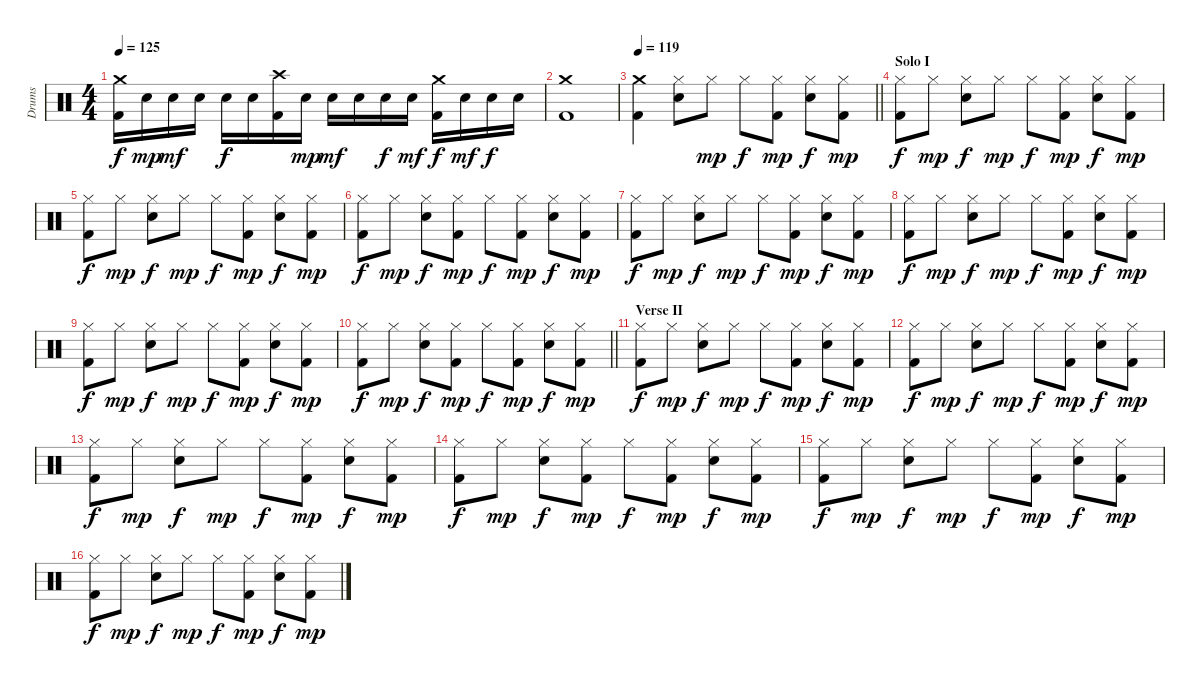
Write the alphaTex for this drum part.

\track ("Drums" "Drums") {instrument percussion}
\staff {score}
\articulation defaults
\ts (4 4)
\tempo 125
\clef neutral
\ks c
("Crash medium (hit)" "Kick (hit) 2").16{dy f} "Electric Snare (hit)".16{dy mp} "Electric Snare (hit)".16{dy mf} "Electric Snare (hit)".16 "Electric Snare (hit)".16{dy f} "Electric Snare (hit)".16 ("Crash high (hit)" "Kick (hit) 2").16 "Electric Snare (hit)".16{dy mp} "Electric Snare (hit)".16{dy mf} "Electric Snare (hit)".16 "Electric Snare (hit)".16{dy f} "Electric Snare (hit)".16{dy mf} ("Crash medium (hit)" "Kick (hit) 2").16{dy f} "Electric Snare (hit)".16{dy mf} "Electric Snare (hit)".16{dy f} "Electric Snare (hit)".16 |
("Crash medium (hit)" "Kick (hit) 2").1 |
\tempo 119
\barLineRight lightlight
("Crash medium (hit)" "Kick (hit) 2").4 ("Hi-Hat (closed)" "Electric Snare (hit)").8 "Hi-Hat (closed)".8{dy mp} "Hi-Hat (closed)".8{dy f} ("Hi-Hat (closed)" "Kick (hit) 2").8{dy mp} ("Hi-Hat (closed)" "Electric Snare (hit)").8{dy f} ("Hi-Hat (closed)" "Kick (hit) 2").8{dy mp} |
\section ("" "Solo I")
("Hi-Hat (closed)" "Kick (hit) 2").8{dy f} "Hi-Hat (closed)".8{dy mp} ("Hi-Hat (closed)" "Electric Snare (hit)").8{dy f} "Hi-Hat (closed)".8{dy mp} "Hi-Hat (closed)".8{dy f} ("Hi-Hat (closed)" "Kick (hit) 2").8{dy mp} ("Hi-Hat (closed)" "Electric Snare (hit)").8{dy f} ("Hi-Hat (closed)" "Kick (hit) 2").8{dy mp} |
("Hi-Hat (closed)" "Kick (hit) 2").8{dy f} "Hi-Hat (closed)".8{dy mp} ("Hi-Hat (closed)" "Electric Snare (hit)").8{dy f} "Hi-Hat (closed)".8{dy mp} "Hi-Hat (closed)".8{dy f} ("Hi-Hat (closed)" "Kick (hit) 2").8{dy mp} ("Hi-Hat (closed)" "Electric Snare (hit)").8{dy f} ("Hi-Hat (closed)" "Kick (hit) 2").8{dy mp} |
("Hi-Hat (closed)" "Kick (hit) 2").8{dy f} "Hi-Hat (closed)".8{dy mp} ("Hi-Hat (closed)" "Electric Snare (hit)").8{dy f} ("Hi-Hat (closed)" "Kick (hit) 2").8{dy mp} "Hi-Hat (closed)".8{dy f} ("Hi-Hat (closed)" "Kick (hit) 2").8{dy mp} ("Hi-Hat (closed)" "Electric Snare (hit)").8{dy f} ("Hi-Hat (closed)" "Kick (hit) 2").8{dy mp} |
("Hi-Hat (closed)" "Kick (hit) 2").8{dy f} "Hi-Hat (closed)".8{dy mp} ("Hi-Hat (closed)" "Electric Snare (hit)").8{dy f} "Hi-Hat (closed)".8{dy mp} "Hi-Hat (closed)".8{dy f} ("Hi-Hat (closed)" "Kick (hit) 2").8{dy mp} ("Hi-Hat (closed)" "Electric Snare (hit)").8{dy f} ("Hi-Hat (closed)" "Kick (hit) 2").8{dy mp} |
("Hi-Hat (closed)" "Kick (hit) 2").8{dy f} "Hi-Hat (closed)".8{dy mp} ("Hi-Hat (closed)" "Electric Snare (hit)").8{dy f} "Hi-Hat (closed)".8{dy mp} "Hi-Hat (closed)".8{dy f} ("Hi-Hat (closed)" "Kick (hit) 2").8{dy mp} ("Hi-Hat (closed)" "Electric Snare (hit)").8{dy f} ("Hi-Hat (closed)" "Kick (hit) 2").8{dy mp} |
("Hi-Hat (closed)" "Kick (hit) 2").8{dy f} "Hi-Hat (closed)".8{dy mp} ("Hi-Hat (closed)" "Electric Snare (hit)").8{dy f} "Hi-Hat (closed)".8{dy mp} "Hi-Hat (closed)".8{dy f} ("Hi-Hat (closed)" "Kick (hit) 2").8{dy mp} ("Hi-Hat (closed)" "Electric Snare (hit)").8{dy f} ("Hi-Hat (closed)" "Kick (hit) 2").8{dy mp} |
\barLineRight lightlight
("Hi-Hat (closed)" "Kick (hit) 2").8{dy f} "Hi-Hat (closed)".8{dy mp} ("Hi-Hat (closed)" "Electric Snare (hit)").8{dy f} ("Hi-Hat (closed)" "Kick (hit) 2").8{dy mp} "Hi-Hat (closed)".8{dy f} ("Hi-Hat (closed)" "Kick (hit) 2").8{dy mp} ("Hi-Hat (closed)" "Electric Snare (hit)").8{dy f} ("Hi-Hat (closed)" "Kick (hit) 2").8{dy mp} |
\section ("" "Verse II")
("Hi-Hat (closed)" "Kick (hit) 2").8{dy f} "Hi-Hat (closed)".8{dy mp} ("Hi-Hat (closed)" "Electric Snare (hit)").8{dy f} "Hi-Hat (closed)".8{dy mp} "Hi-Hat (closed)".8{dy f} ("Hi-Hat (closed)" "Kick (hit) 2").8{dy mp} ("Hi-Hat (closed)" "Electric Snare (hit)").8{dy f} ("Hi-Hat (closed)" "Kick (hit) 2").8{dy mp} |
("Hi-Hat (closed)" "Kick (hit) 2").8{dy f} "Hi-Hat (closed)".8{dy mp} ("Hi-Hat (closed)" "Electric Snare (hit)").8{dy f} "Hi-Hat (closed)".8{dy mp} "Hi-Hat (closed)".8{dy f} ("Hi-Hat (closed)" "Kick (hit) 2").8{dy mp} ("Hi-Hat (closed)" "Electric Snare (hit)").8{dy f} ("Hi-Hat (closed)" "Kick (hit) 2").8{dy mp} |
("Hi-Hat (closed)" "Kick (hit) 2").8{dy f} "Hi-Hat (closed)".8{dy mp} ("Hi-Hat (closed)" "Electric Snare (hit)").8{dy f} "Hi-Hat (closed)".8{dy mp} "Hi-Hat (closed)".8{dy f} ("Hi-Hat (closed)" "Kick (hit) 2").8{dy mp} ("Hi-Hat (closed)" "Electric Snare (hit)").8{dy f} ("Hi-Hat (closed)" "Kick (hit) 2").8{dy mp} |
("Hi-Hat (closed)" "Kick (hit) 2").8{dy f} "Hi-Hat (closed)".8{dy mp} ("Hi-Hat (closed)" "Electric Snare (hit)").8{dy f} ("Hi-Hat (closed)" "Kick (hit) 2").8{dy mp} "Hi-Hat (closed)".8{dy f} ("Hi-Hat (closed)" "Kick (hit) 2").8{dy mp} ("Hi-Hat (closed)" "Electric Snare (hit)").8{dy f} ("Hi-Hat (closed)" "Kick (hit) 2").8{dy mp} |
("Hi-Hat (closed)" "Kick (hit) 2").8{dy f} "Hi-Hat (closed)".8{dy mp} ("Hi-Hat (closed)" "Electric Snare (hit)").8{dy f} "Hi-Hat (closed)".8{dy mp} "Hi-Hat (closed)".8{dy f} ("Hi-Hat (closed)" "Kick (hit) 2").8{dy mp} ("Hi-Hat (closed)" "Electric Snare (hit)").8{dy f} ("Hi-Hat (closed)" "Kick (hit) 2").8{dy mp} |
("Hi-Hat (closed)" "Kick (hit) 2").8{dy f} "Hi-Hat (closed)".8{dy mp} ("Hi-Hat (closed)" "Electric Snare (hit)").8{dy f} "Hi-Hat (closed)".8{dy mp} "Hi-Hat (closed)".8{dy f} ("Hi-Hat (closed)" "Kick (hit) 2").8{dy mp} ("Hi-Hat (closed)" "Electric Snare (hit)").8{dy f} ("Hi-Hat (closed)" "Kick (hit) 2").8{dy mp}
